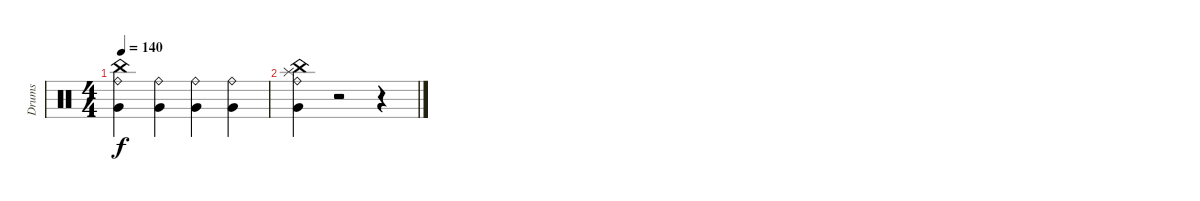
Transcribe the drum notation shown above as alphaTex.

\track ("Drums" "Drums") {instrument percussion}
\staff {score}
\articulation defaults
\ts (4 4)
\tempo 140
\clef neutral
\ks c
("China (hit)" "Ride (bell)" "Very Low Tom (hit)").4{dy f} ("Ride (bell)" "Very Low Tom (hit)").4 ("Ride (bell)" "Very Low Tom (hit)").4 ("Ride (bell)" "Very Low Tom (hit)").4 |
("Very Low Tom (hit)" "Splash (hit)" "Ride (bell)" "China (hit)").4 r.2 r.4
